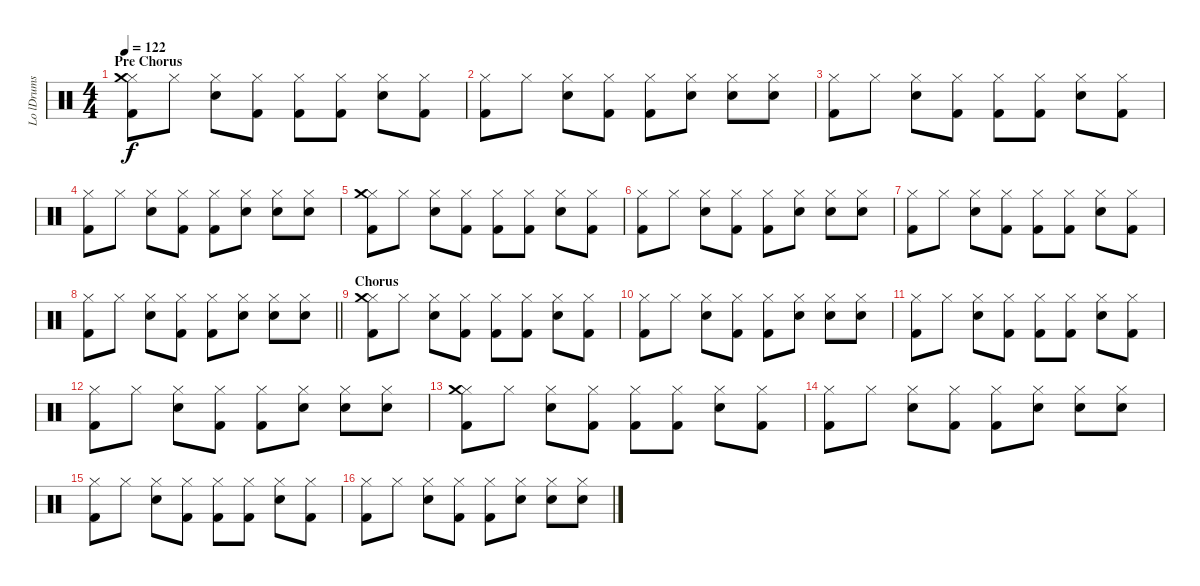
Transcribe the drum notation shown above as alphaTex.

\track ("Lo lDrums" "Lo lDrums") {instrument percussion}
\staff {score}
\articulation defaults
\ts (4 4)
\section ("" "Pre Chorus")
\tempo 122
\clef neutral
\ks c
("Hi-Hat (closed)" "Crash medium (hit)" "Kick (hit) 2").8{dy f} "Hi-Hat (closed)".8 ("Hi-Hat (closed)" "Snare (hit) 2").8 ("Hi-Hat (closed)" "Kick (hit) 2").8 ("Hi-Hat (closed)" "Kick (hit) 2").8 ("Hi-Hat (closed)" "Kick (hit) 2").8 ("Hi-Hat (closed)" "Snare (hit) 2").8 ("Hi-Hat (closed)" "Kick (hit) 2").8 |
("Kick (hit) 2" "Hi-Hat (closed)").8 "Hi-Hat (closed)".8 ("Snare (hit) 2" "Hi-Hat (closed)").8 ("Kick (hit) 2" "Hi-Hat (closed)").8 ("Kick (hit) 2" "Hi-Hat (closed)").8 ("Snare (hit) 2" "Hi-Hat (closed)").8 ("Snare (hit) 2" "Hi-Hat (closed)").8 ("Snare (hit) 2" "Hi-Hat (closed)").8 |
("Kick (hit) 2" "Hi-Hat (closed)").8 "Hi-Hat (closed)".8 ("Hi-Hat (closed)" "Snare (hit) 2").8 ("Hi-Hat (closed)" "Kick (hit) 2").8 ("Hi-Hat (closed)" "Kick (hit) 2").8 ("Hi-Hat (closed)" "Kick (hit) 2").8 ("Hi-Hat (closed)" "Snare (hit) 2").8 ("Hi-Hat (closed)" "Kick (hit) 2").8 |
("Kick (hit) 2" "Hi-Hat (closed)").8 "Hi-Hat (closed)".8 ("Snare (hit) 2" "Hi-Hat (closed)").8 ("Kick (hit) 2" "Hi-Hat (closed)").8 ("Kick (hit) 2" "Hi-Hat (closed)").8 ("Snare (hit) 2" "Hi-Hat (closed)").8 ("Snare (hit) 2" "Hi-Hat (closed)").8 ("Snare (hit) 2" "Hi-Hat (closed)").8 |
("Hi-Hat (closed)" "Crash medium (hit)" "Kick (hit) 2").8 "Hi-Hat (closed)".8 ("Hi-Hat (closed)" "Snare (hit) 2").8 ("Hi-Hat (closed)" "Kick (hit) 2").8 ("Hi-Hat (closed)" "Kick (hit) 2").8 ("Hi-Hat (closed)" "Kick (hit) 2").8 ("Hi-Hat (closed)" "Snare (hit) 2").8 ("Hi-Hat (closed)" "Kick (hit) 2").8 |
("Kick (hit) 2" "Hi-Hat (closed)").8 "Hi-Hat (closed)".8 ("Snare (hit) 2" "Hi-Hat (closed)").8 ("Kick (hit) 2" "Hi-Hat (closed)").8 ("Kick (hit) 2" "Hi-Hat (closed)").8 ("Snare (hit) 2" "Hi-Hat (closed)").8 ("Snare (hit) 2" "Hi-Hat (closed)").8 ("Snare (hit) 2" "Hi-Hat (closed)").8 |
("Kick (hit) 2" "Hi-Hat (closed)").8 "Hi-Hat (closed)".8 ("Hi-Hat (closed)" "Snare (hit) 2").8 ("Hi-Hat (closed)" "Kick (hit) 2").8 ("Hi-Hat (closed)" "Kick (hit) 2").8 ("Hi-Hat (closed)" "Kick (hit) 2").8 ("Hi-Hat (closed)" "Snare (hit) 2").8 ("Hi-Hat (closed)" "Kick (hit) 2").8 |
\barLineRight lightlight
("Kick (hit) 2" "Hi-Hat (closed)").8 "Hi-Hat (closed)".8 ("Snare (hit) 2" "Hi-Hat (closed)").8 ("Kick (hit) 2" "Hi-Hat (closed)").8 ("Kick (hit) 2" "Hi-Hat (closed)").8 ("Snare (hit) 2" "Hi-Hat (closed)").8 ("Snare (hit) 2" "Hi-Hat (closed)").8 ("Snare (hit) 2" "Hi-Hat (closed)").8 |
\section ("" "Chorus")
("Hi-Hat (closed)" "Crash medium (hit)" "Kick (hit) 2").8 "Hi-Hat (closed)".8 ("Hi-Hat (closed)" "Snare (hit) 2").8 ("Hi-Hat (closed)" "Kick (hit) 2").8 ("Hi-Hat (closed)" "Kick (hit) 2").8 ("Hi-Hat (closed)" "Kick (hit) 2").8 ("Hi-Hat (closed)" "Snare (hit) 2").8 ("Hi-Hat (closed)" "Kick (hit) 2").8 |
("Kick (hit) 2" "Hi-Hat (closed)").8 "Hi-Hat (closed)".8 ("Snare (hit) 2" "Hi-Hat (closed)").8 ("Kick (hit) 2" "Hi-Hat (closed)").8 ("Kick (hit) 2" "Hi-Hat (closed)").8 ("Snare (hit) 2" "Hi-Hat (closed)").8 ("Snare (hit) 2" "Hi-Hat (closed)").8 ("Snare (hit) 2" "Hi-Hat (closed)").8 |
("Kick (hit) 2" "Hi-Hat (closed)").8 "Hi-Hat (closed)".8 ("Hi-Hat (closed)" "Snare (hit) 2").8 ("Hi-Hat (closed)" "Kick (hit) 2").8 ("Hi-Hat (closed)" "Kick (hit) 2").8 ("Hi-Hat (closed)" "Kick (hit) 2").8 ("Hi-Hat (closed)" "Snare (hit) 2").8 ("Hi-Hat (closed)" "Kick (hit) 2").8 |
("Kick (hit) 2" "Hi-Hat (closed)").8 "Hi-Hat (closed)".8 ("Snare (hit) 2" "Hi-Hat (closed)").8 ("Kick (hit) 2" "Hi-Hat (closed)").8 ("Kick (hit) 2" "Hi-Hat (closed)").8 ("Snare (hit) 2" "Hi-Hat (closed)").8 ("Snare (hit) 2" "Hi-Hat (closed)").8 ("Snare (hit) 2" "Hi-Hat (closed)").8 |
("Hi-Hat (closed)" "Crash medium (hit)" "Kick (hit) 2").8 "Hi-Hat (closed)".8 ("Hi-Hat (closed)" "Snare (hit) 2").8 ("Hi-Hat (closed)" "Kick (hit) 2").8 ("Hi-Hat (closed)" "Kick (hit) 2").8 ("Hi-Hat (closed)" "Kick (hit) 2").8 ("Hi-Hat (closed)" "Snare (hit) 2").8 ("Hi-Hat (closed)" "Kick (hit) 2").8 |
("Kick (hit) 2" "Hi-Hat (closed)").8 "Hi-Hat (closed)".8 ("Snare (hit) 2" "Hi-Hat (closed)").8 ("Kick (hit) 2" "Hi-Hat (closed)").8 ("Kick (hit) 2" "Hi-Hat (closed)").8 ("Snare (hit) 2" "Hi-Hat (closed)").8 ("Snare (hit) 2" "Hi-Hat (closed)").8 ("Snare (hit) 2" "Hi-Hat (closed)").8 |
("Kick (hit) 2" "Hi-Hat (closed)").8 "Hi-Hat (closed)".8 ("Hi-Hat (closed)" "Snare (hit) 2").8 ("Hi-Hat (closed)" "Kick (hit) 2").8 ("Hi-Hat (closed)" "Kick (hit) 2").8 ("Hi-Hat (closed)" "Kick (hit) 2").8 ("Hi-Hat (closed)" "Snare (hit) 2").8 ("Hi-Hat (closed)" "Kick (hit) 2").8 |
("Kick (hit) 2" "Hi-Hat (closed)").8 "Hi-Hat (closed)".8 ("Snare (hit) 2" "Hi-Hat (closed)").8 ("Kick (hit) 2" "Hi-Hat (closed)").8 ("Kick (hit) 2" "Hi-Hat (closed)").8 ("Snare (hit) 2" "Hi-Hat (closed)").8 ("Snare (hit) 2" "Hi-Hat (closed)").8 ("Snare (hit) 2" "Hi-Hat (closed)").8
